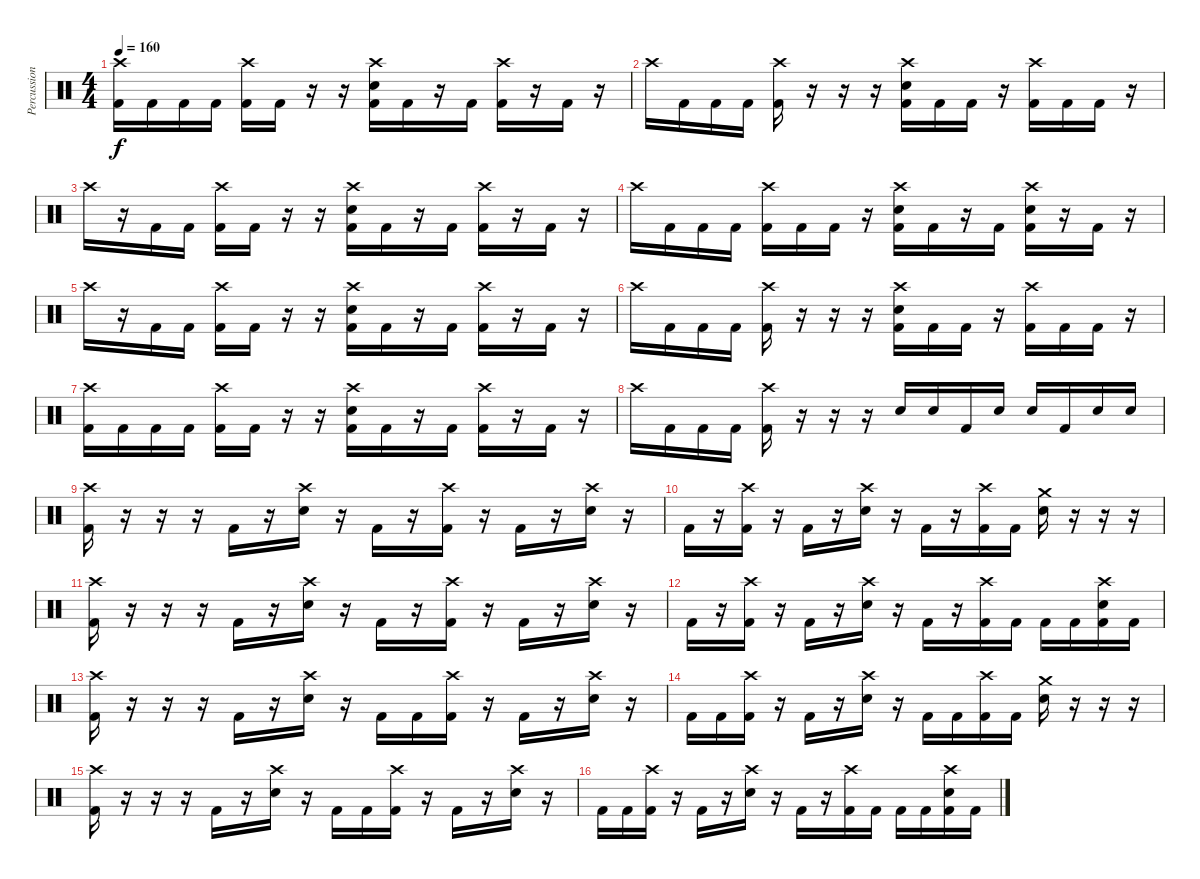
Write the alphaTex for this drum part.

\track ("Percussion" "Percussion") {instrument percussion}
\staff {score}
\articulation defaults
\ts (4 4)
\tempo 160
\clef neutral
\ks c
("Crash high (hit)" "Kick (hit) 2").16{dy f} "Kick (hit) 2".16 "Kick (hit) 2".16 "Kick (hit) 2".16 ("Crash high (hit)" "Kick (hit) 2").16 "Kick (hit) 2".16 r.16 r.16 ("Crash high (hit)" "Snare (hit) 2" "Kick (hit) 2").16 "Kick (hit) 2".16 r.16 "Kick (hit) 2".16 ("Crash high (hit)" "Kick (hit) 2").16 r.16 "Kick (hit) 2".16 r.16 |
"Crash high (hit)".16 "Kick (hit) 2".16 "Kick (hit) 2".16 "Kick (hit) 2".16 ("Crash high (hit)" "Kick (hit) 2").16 r.16 r.16 r.16 ("Crash high (hit)" "Snare (hit) 2" "Kick (hit) 2").16 "Kick (hit) 2".16 "Kick (hit) 2".16 r.16 ("Crash high (hit)" "Kick (hit) 2").16 "Kick (hit) 2".16 "Kick (hit) 2".16 r.16 |
"Crash high (hit)".16 r.16 "Kick (hit) 2".16 "Kick (hit) 2".16 ("Crash high (hit)" "Kick (hit) 2").16 "Kick (hit) 2".16 r.16 r.16 ("Crash high (hit)" "Snare (hit) 2" "Kick (hit) 2").16 "Kick (hit) 2".16 r.16 "Kick (hit) 2".16 ("Crash high (hit)" "Kick (hit) 2").16 r.16 "Kick (hit) 2".16 r.16 |
"Crash high (hit)".16 "Kick (hit) 2".16 "Kick (hit) 2".16 "Kick (hit) 2".16 ("Crash high (hit)" "Kick (hit) 2").16 "Kick (hit) 2".16 "Kick (hit) 2".16 r.16 ("Crash high (hit)" "Snare (hit) 2" "Kick (hit) 2").16 "Kick (hit) 2".16 r.16 "Kick (hit) 2".16 ("Crash high (hit)" "Snare (hit) 2" "Kick (hit) 2").16 r.16 "Kick (hit) 2".16 r.16 |
"Crash high (hit)".16 r.16 "Kick (hit) 2".16 "Kick (hit) 2".16 ("Crash high (hit)" "Kick (hit) 2").16 "Kick (hit) 2".16 r.16 r.16 ("Crash high (hit)" "Snare (hit) 2" "Kick (hit) 2").16 "Kick (hit) 2".16 r.16 "Kick (hit) 2".16 ("Crash high (hit)" "Kick (hit) 2").16 r.16 "Kick (hit) 2".16 r.16 |
"Crash high (hit)".16 "Kick (hit) 2".16 "Kick (hit) 2".16 "Kick (hit) 2".16 ("Crash high (hit)" "Kick (hit) 2").16 r.16 r.16 r.16 ("Crash high (hit)" "Snare (hit) 2" "Kick (hit) 2").16 "Kick (hit) 2".16 "Kick (hit) 2".16 r.16 ("Crash high (hit)" "Kick (hit) 2").16 "Kick (hit) 2".16 "Kick (hit) 2".16 r.16 |
("Crash high (hit)" "Kick (hit) 2").16 "Kick (hit) 2".16 "Kick (hit) 2".16 "Kick (hit) 2".16 ("Crash high (hit)" "Kick (hit) 2").16 "Kick (hit) 2".16 r.16 r.16 ("Crash high (hit)" "Snare (hit) 2" "Kick (hit) 2").16 "Kick (hit) 2".16 r.16 "Kick (hit) 2".16 ("Crash high (hit)" "Kick (hit) 2").16 r.16 "Kick (hit) 2".16 r.16 |
"Crash high (hit)".16 "Kick (hit) 2".16 "Kick (hit) 2".16 "Kick (hit) 2".16 ("Crash high (hit)" "Kick (hit) 2").16 r.16 r.16 r.16 "Snare (hit) 2".16 "Snare (hit) 2".16 "Kick (hit) 2".16 "Snare (hit) 2".16 "Snare (hit) 2".16 "Kick (hit) 2".16 "Snare (hit) 2".16 "Snare (hit) 2".16 |
("Crash high (hit)" "Kick (hit) 2").16 r.16 r.16 r.16 "Kick (hit) 2".16 r.16 ("Crash high (hit)" "Snare (hit) 2").16 r.16 "Kick (hit) 2".16 r.16 ("Crash high (hit)" "Kick (hit) 2").16 r.16 "Kick (hit) 2".16 r.16 ("Crash high (hit)" "Snare (hit) 2").16 r.16 |
"Kick (hit) 2".16 r.16 ("Crash high (hit)" "Kick (hit) 2").16 r.16 "Kick (hit) 2".16 r.16 ("Crash high (hit)" "Snare (hit) 2").16 r.16 "Kick (hit) 2".16 r.16 ("Crash high (hit)" "Kick (hit) 2").16 "Kick (hit) 2".16 ("Crash medium (hit)" "Snare (hit) 2").16 r.16 r.16 r.16 |
("Crash high (hit)" "Kick (hit) 2").16 r.16 r.16 r.16 "Kick (hit) 2".16 r.16 ("Crash high (hit)" "Snare (hit) 2").16 r.16 "Kick (hit) 2".16 r.16 ("Crash high (hit)" "Kick (hit) 2").16 r.16 "Kick (hit) 2".16 r.16 ("Crash high (hit)" "Snare (hit) 2").16 r.16 |
"Kick (hit) 2".16 r.16 ("Crash high (hit)" "Kick (hit) 2").16 r.16 "Kick (hit) 2".16 r.16 ("Crash high (hit)" "Snare (hit) 2").16 r.16 "Kick (hit) 2".16 r.16 ("Crash high (hit)" "Kick (hit) 2").16 "Kick (hit) 2".16 "Kick (hit) 2".16 "Kick (hit) 2".16 ("Crash high (hit)" "Snare (hit) 2" "Kick (hit) 2").16 "Kick (hit) 2".16 |
("Crash high (hit)" "Kick (hit) 2").16 r.16 r.16 r.16 "Kick (hit) 2".16 r.16 ("Crash high (hit)" "Snare (hit) 2").16 r.16 "Kick (hit) 2".16 "Kick (hit) 2".16 ("Crash high (hit)" "Kick (hit) 2").16 r.16 "Kick (hit) 2".16 r.16 ("Crash high (hit)" "Snare (hit) 2").16 r.16 |
"Kick (hit) 2".16 "Kick (hit) 2".16 ("Crash high (hit)" "Kick (hit) 2").16 r.16 "Kick (hit) 2".16 r.16 ("Crash high (hit)" "Snare (hit) 2").16 r.16 "Kick (hit) 2".16 "Kick (hit) 2".16 ("Crash high (hit)" "Kick (hit) 2").16 "Kick (hit) 2".16 ("Crash medium (hit)" "Snare (hit) 2").16 r.16 r.16 r.16 |
("Crash high (hit)" "Kick (hit) 2").16 r.16 r.16 r.16 "Kick (hit) 2".16 r.16 ("Crash high (hit)" "Snare (hit) 2").16 r.16 "Kick (hit) 2".16 "Kick (hit) 2".16 ("Crash high (hit)" "Kick (hit) 2").16 r.16 "Kick (hit) 2".16 r.16 ("Crash high (hit)" "Snare (hit) 2").16 r.16 |
"Kick (hit) 2".16 "Kick (hit) 2".16 ("Crash high (hit)" "Kick (hit) 2").16 r.16 "Kick (hit) 2".16 r.16 ("Crash high (hit)" "Snare (hit) 2").16 r.16 "Kick (hit) 2".16 r.16 ("Crash high (hit)" "Kick (hit) 2").16 "Kick (hit) 2".16 "Kick (hit) 2".16 "Kick (hit) 2".16 ("Crash high (hit)" "Snare (hit) 2" "Kick (hit) 2").16 "Kick (hit) 2".16
